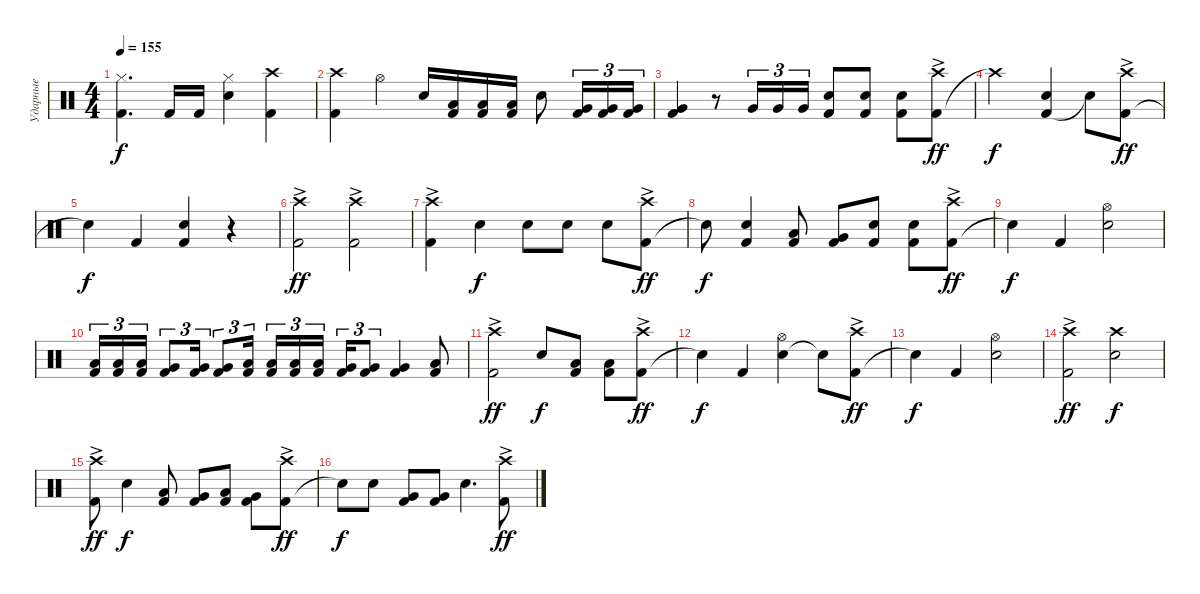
\track ("Ударные" "Ударные") {instrument percussion}
\staff
\articulation defaults
\ts (4 4)
\tempo 155
\clef neutral
\ks c
("Kick (hit) 2" "Hi-Hat (closed)").4{d dy f} "Kick (hit) 2".16 "Kick (hit) 2".16 ("Snare (hit) 2" "Hi-Hat (closed)").4 ("Kick (hit) 2" "Crash high (hit)").4 |
("Kick (hit) 2" "Crash high (hit)").4 "Hi-Hat (open)".4 "Snare (hit) 2".16 ("Kick (hit) 2" "Low Tom (hit)").16 ("Kick (hit) 2" "Low Tom (hit)").16 ("Kick (hit) 2" "Low Tom (hit)").16 "Snare (hit) 2".8 ("Kick (hit) 2" "Very Low Tom (hit)").16{tu (3 2)} ("Kick (hit) 2" "Very Low Tom (hit)").16{tu (3 2)} ("Kick (hit) 2" "Very Low Tom (hit)").16{tu (3 2)} |
("Kick (hit) 2" "Very Low Tom (hit)").4 r.8 "Very Low Tom (hit)".16{tu (3 2)} "Very Low Tom (hit)".16{tu (3 2)} "Very Low Tom (hit)".16{tu (3 2)} ("Kick (hit) 2" "Snare (hit) 2").8 ("Kick (hit) 2" "Snare (hit) 2").8 ("Kick (hit) 2" "Snare (hit) 2").8 ("Kick (hit) 2" "Crash high (hit)"{ac}).8{dy ff} |
"Crash high (hit)"{t}.2{dy f} ("Kick (hit) 2" "Snare (hit) 2").4 "Snare (hit)"{t}.8 ("Kick (hit) 2" "Crash high (hit)"{ac}).8{dy ff} |
"Snare (hit)"{t}.4{dy f} "Kick (hit) 2".4 ("Kick (hit) 2" "Snare (hit) 2").4 r.4 |
("Kick (hit) 2" "Crash high (hit)"{ac}).2{dy ff} ("Kick (hit) 2" "Crash high (hit)"{ac}).2 |
("Kick (hit) 2" "Crash high (hit)"{ac}).4 "Snare (hit) 2".4{dy f} "Snare (hit) 2".8 "Snare (hit) 2".8 "Snare (hit) 2".8 ("Kick (hit) 2" "Crash high (hit)"{ac}).8{dy ff} |
"Snare (hit)"{t}.8{dy f} ("Kick (hit) 2" "Snare (hit) 2").4 ("Kick (hit) 2" "Low Tom (hit)").8 ("Kick (hit) 2" "Very Low Tom (hit)").8 ("Kick (hit) 2" "Snare (hit) 2").8 ("Kick (hit) 2" "Snare (hit) 2").8 ("Kick (hit) 2" "Crash high (hit)"{ac}).8{dy ff} |
"Snare (hit)"{t}.4{dy f} "Kick (hit) 2".4 ("Snare (hit) 2" "Hi-Hat (open)").2 |
("Kick (hit) 2" "Low Tom (hit)").16{tu (3 2)} ("Kick (hit) 2" "Low Tom (hit)").16{tu (3 2)} ("Kick (hit) 2" "Low Tom (hit)").16{tu (3 2)} ("Kick (hit) 2" "Very Low Tom (hit)").8{tu (3 2)} ("Kick (hit) 2" "Very Low Tom (hit)").16{tu (3 2)} ("Kick (hit) 2" "Very Low Tom (hit)").8{tu (3 2)} ("Kick (hit) 2" "Low Tom (hit)").16{tu (3 2) beam splitsecondary} ("Kick (hit) 2" "Low Tom (hit)").16{tu (3 2)} ("Kick (hit) 2" "Low Tom (hit)").16{tu (3 2)} ("Kick (hit) 2" "Low Tom (hit)").16{tu (3 2)} ("Kick (hit) 2" "Very Low Tom (hit)").16{tu (3 2)} ("Kick (hit) 2" "Very Low Tom (hit)").8{tu (3 2)} ("Kick (hit) 2" "Very Low Tom (hit)").4 ("Kick (hit) 2" "Low Floor Tom (hit)").8 |
("Kick (hit) 2" "Crash high (hit)"{ac}).2{dy ff} "Snare (hit) 2".8{dy f} ("Kick (hit) 2" "Low Tom (hit)").8 ("Kick (hit) 2" "Low Tom (hit)").8 ("Kick (hit) 2" "Crash high (hit)"{ac}).8{dy ff} |
"Snare (hit)"{t}.4{dy f} "Kick (hit) 2".4 ("Snare (hit) 2" "Hi-Hat (open)").4 "Snare (hit)"{t}.8 ("Kick (hit) 2" "Crash high (hit)"{ac}).8{dy ff} |
"Snare (hit)"{t}.4{dy f} "Kick (hit) 2".4 ("Snare (hit) 2" "Hi-Hat (open)").2 |
("Kick (hit) 2" "Crash high (hit)"{ac}).2{dy ff} ("Snare (hit) 2" "Crash high (hit)").2{dy f} |
("Kick (hit) 2" "Crash high (hit)"{ac}).8{dy ff} "Snare (hit) 2".4{dy f} ("Kick (hit) 2" "Low Tom (hit)").8 ("Kick (hit) 2" "Very Low Tom (hit)").8 ("Kick (hit) 2" "Low Tom (hit)").8 ("Kick (hit) 2" "Very Low Tom (hit)").8 ("Kick (hit) 2" "Crash high (hit)"{ac}).8{dy ff} |
"Snare (hit)"{t}.8{dy f} "Snare (hit) 2".8 ("Kick (hit) 2" "Very Low Tom (hit)").8 ("Kick (hit) 2" "Very Low Tom (hit)").8 "Snare (hit) 2".4{d} ("Kick (hit) 2" "Crash high (hit)"{ac}).8{dy ff}
